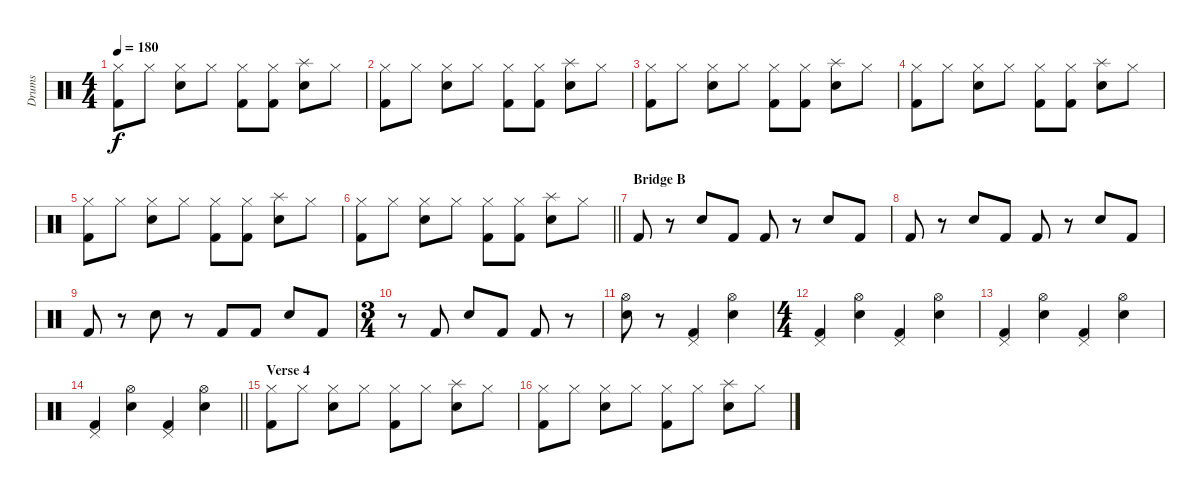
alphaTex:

\track ("Drums" "Drums") {instrument percussion}
\staff {score}
\articulation defaults
\ts (4 4)
\tempo 180
\clef neutral
\ks c
("Hi-Hat (closed)" "Kick (hit) 2").8{dy f} "Hi-Hat (closed)".8 ("Hi-Hat (closed)" "Snare (hit) 2").8 "Hi-Hat (closed)".8 ("Hi-Hat (closed)" "Kick (hit) 2").8 ("Hi-Hat (closed)" "Kick (hit) 2").8 ("Splash (hit)" "Snare (hit) 2").8 "Hi-Hat (closed)".8 |
("Hi-Hat (closed)" "Kick (hit) 2").8 "Hi-Hat (closed)".8 ("Hi-Hat (closed)" "Snare (hit) 2").8 "Hi-Hat (closed)".8 ("Hi-Hat (closed)" "Kick (hit) 2").8 ("Hi-Hat (closed)" "Kick (hit) 2").8 ("Splash (hit)" "Snare (hit) 2").8 "Hi-Hat (closed)".8 |
("Hi-Hat (closed)" "Kick (hit) 2").8 "Hi-Hat (closed)".8 ("Hi-Hat (closed)" "Snare (hit) 2").8 "Hi-Hat (closed)".8 ("Hi-Hat (closed)" "Kick (hit) 2").8 ("Hi-Hat (closed)" "Kick (hit) 2").8 ("Splash (hit)" "Snare (hit) 2").8 "Hi-Hat (closed)".8 |
("Hi-Hat (closed)" "Kick (hit) 2").8 "Hi-Hat (closed)".8 ("Hi-Hat (closed)" "Snare (hit) 2").8 "Hi-Hat (closed)".8 ("Hi-Hat (closed)" "Kick (hit) 2").8 ("Hi-Hat (closed)" "Kick (hit) 2").8 ("Splash (hit)" "Snare (hit) 2").8 "Hi-Hat (closed)".8 |
("Hi-Hat (closed)" "Kick (hit) 2").8 "Hi-Hat (closed)".8 ("Hi-Hat (closed)" "Snare (hit) 2").8 "Hi-Hat (closed)".8 ("Hi-Hat (closed)" "Kick (hit) 2").8 ("Hi-Hat (closed)" "Kick (hit) 2").8 ("Splash (hit)" "Snare (hit) 2").8 "Hi-Hat (closed)".8 |
\barLineRight lightlight
("Hi-Hat (closed)" "Kick (hit) 2").8 "Hi-Hat (closed)".8 ("Hi-Hat (closed)" "Snare (hit) 2").8 "Hi-Hat (closed)".8 ("Hi-Hat (closed)" "Kick (hit) 2").8 ("Hi-Hat (closed)" "Kick (hit) 2").8 ("Splash (hit)" "Snare (hit) 2").8 "Hi-Hat (closed)".8 |
\section ("" "Bridge B")
"Kick (hit) 2".8 r.8 "Snare (hit) 2".8 "Kick (hit) 2".8 "Kick (hit) 2".8 r.8 "Snare (hit) 2".8 "Kick (hit) 2".8 |
"Kick (hit) 2".8 r.8 "Snare (hit) 2".8 "Kick (hit) 2".8 "Kick (hit) 2".8 r.8 "Snare (hit) 2".8 "Kick (hit) 2".8 |
"Kick (hit) 2".8 r.8 "Snare (hit) 2".8 r.8 "Kick (hit) 2".8 "Kick (hit) 2".8 "Snare (hit) 2".8 "Kick (hit) 2".8 |
\ts (3 4)
r.8 "Kick (hit) 2".8 "Snare (hit) 2".8 "Kick (hit) 2".8 "Kick (hit) 2".8 r.8 |
("Hi-Hat (open)" "Snare (hit) 2").8 r.8 ("Pedal Hi-Hat (hit)" "Kick (hit) 2").4 ("Hi-Hat (open)" "Snare (hit) 2").4 |
\ts (4 4)
("Pedal Hi-Hat (hit)" "Kick (hit) 2").4 ("Hi-Hat (open)" "Snare (hit) 2").4 ("Pedal Hi-Hat (hit)" "Kick (hit) 2").4 ("Hi-Hat (open)" "Snare (hit) 2").4 |
("Pedal Hi-Hat (hit)" "Kick (hit) 2").4 ("Hi-Hat (open)" "Snare (hit) 2").4 ("Pedal Hi-Hat (hit)" "Kick (hit) 2").4 ("Hi-Hat (open)" "Snare (hit) 2").4 |
\barLineRight lightlight
("Pedal Hi-Hat (hit)" "Kick (hit) 2").4 ("Hi-Hat (open)" "Snare (hit) 2").4 ("Pedal Hi-Hat (hit)" "Kick (hit) 2").4 ("Hi-Hat (open)" "Snare (hit) 2").4 |
\section ("" "Verse 4")
("Hi-Hat (closed)" "Kick (hit) 2").8 "Hi-Hat (closed)".8 ("Hi-Hat (closed)" "Snare (hit) 2").8 "Hi-Hat (closed)".8 ("Hi-Hat (closed)" "Kick (hit) 2").8 "Hi-Hat (closed)".8 ("Splash (hit)" "Snare (hit) 2").8 "Hi-Hat (closed)".8 |
("Hi-Hat (closed)" "Kick (hit) 2").8 "Hi-Hat (closed)".8 ("Hi-Hat (closed)" "Snare (hit) 2").8 "Hi-Hat (closed)".8 ("Hi-Hat (closed)" "Kick (hit) 2").8 "Hi-Hat (closed)".8 ("Splash (hit)" "Snare (hit) 2").8 "Hi-Hat (closed)".8
